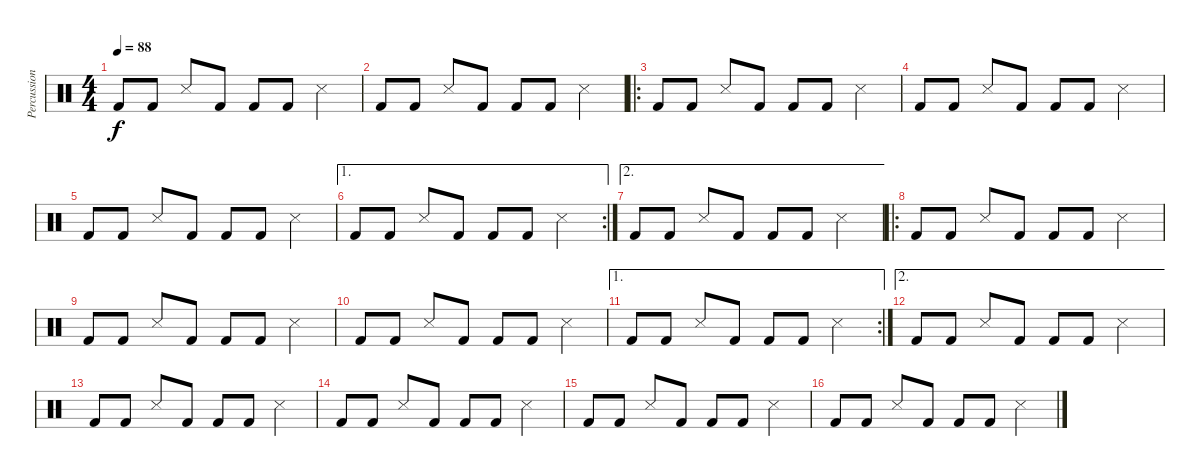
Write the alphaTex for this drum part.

\track ("Percussions" "Percussion") {instrument percussion}
\staff {score}
\articulation defaults
\ts (4 4)
\tempo 88
\clef neutral
\ks c "Kick (hit) 2".8{dy f} "Kick (hit) 2".8 "Snare (side stick) 3".8 "Kick (hit) 2".8 "Kick (hit) 2".8 "Kick (hit) 2".8 "Snare (side stick) 3".4
|
"Kick (hit) 2".8 "Kick (hit) 2".8 "Snare (side stick) 3".8 "Kick (hit) 2".8 "Kick (hit) 2".8 "Kick (hit) 2".8 "Snare (side stick) 3".4 |
\ro "Kick (hit) 2".8 "Kick (hit) 2".8 "Snare (side stick) 3".8 "Kick (hit) 2".8 "Kick (hit) 2".8 "Kick (hit) 2".8 "Snare (side stick) 3".4
|
"Kick (hit) 2".8 "Kick (hit) 2".8 "Snare (side stick) 3".8 "Kick (hit) 2".8 "Kick (hit) 2".8 "Kick (hit) 2".8 "Snare (side stick) 3".4 |
"Kick (hit) 2".8 "Kick (hit) 2".8 "Snare (side stick) 3".8 "Kick (hit) 2".8 "Kick (hit) 2".8 "Kick (hit) 2".8 "Snare (side stick) 3".4 |
\ae 1
\rc 2 "Kick (hit) 2".8 "Kick (hit) 2".8 "Snare (side stick) 3".8 "Kick (hit) 2".8 "Kick (hit) 2".8 "Kick (hit) 2".8 "Snare (side stick) 3".4
|
\ae 2 "Kick (hit) 2".8 "Kick (hit) 2".8 "Snare (side stick) 3".8 "Kick (hit) 2".8 "Kick (hit) 2".8 "Kick (hit) 2".8 "Snare (side stick) 3".4
|
\ro "Kick (hit) 2".8 "Kick (hit) 2".8 "Snare (side stick) 3".8 "Kick (hit) 2".8 "Kick (hit) 2".8 "Kick (hit) 2".8 "Snare (side stick) 3".4
|
"Kick (hit) 2".8 "Kick (hit) 2".8 "Snare (side stick) 3".8 "Kick (hit) 2".8 "Kick (hit) 2".8 "Kick (hit) 2".8 "Snare (side stick) 3".4 |
"Kick (hit) 2".8 "Kick (hit) 2".8 "Snare (side stick) 3".8 "Kick (hit) 2".8 "Kick (hit) 2".8 "Kick (hit) 2".8 "Snare (side stick) 3".4 |
\ae 1
\rc 2 "Kick (hit) 2".8 "Kick (hit) 2".8 "Snare (side stick) 3".8 "Kick (hit) 2".8 "Kick (hit) 2".8 "Kick (hit) 2".8 "Snare (side stick) 3".4
|
\ae 2 "Kick (hit) 2".8 "Kick (hit) 2".8 "Snare (side stick) 3".8 "Kick (hit) 2".8 "Kick (hit) 2".8 "Kick (hit) 2".8 "Snare (side stick) 3".4
|
"Kick (hit) 2".8 "Kick (hit) 2".8 "Snare (side stick) 3".8 "Kick (hit) 2".8 "Kick (hit) 2".8 "Kick (hit) 2".8 "Snare (side stick) 3".4 |
"Kick (hit) 2".8 "Kick (hit) 2".8 "Snare (side stick) 3".8 "Kick (hit) 2".8 "Kick (hit) 2".8 "Kick (hit) 2".8 "Snare (side stick) 3".4 |
"Kick (hit) 2".8 "Kick (hit) 2".8 "Snare (side stick) 3".8 "Kick (hit) 2".8 "Kick (hit) 2".8 "Kick (hit) 2".8 "Snare (side stick) 3".4 |
"Kick (hit) 2".8 "Kick (hit) 2".8 "Snare (side stick) 3".8 "Kick (hit) 2".8 "Kick (hit) 2".8 "Kick (hit) 2".8 "Snare (side stick) 3".4
